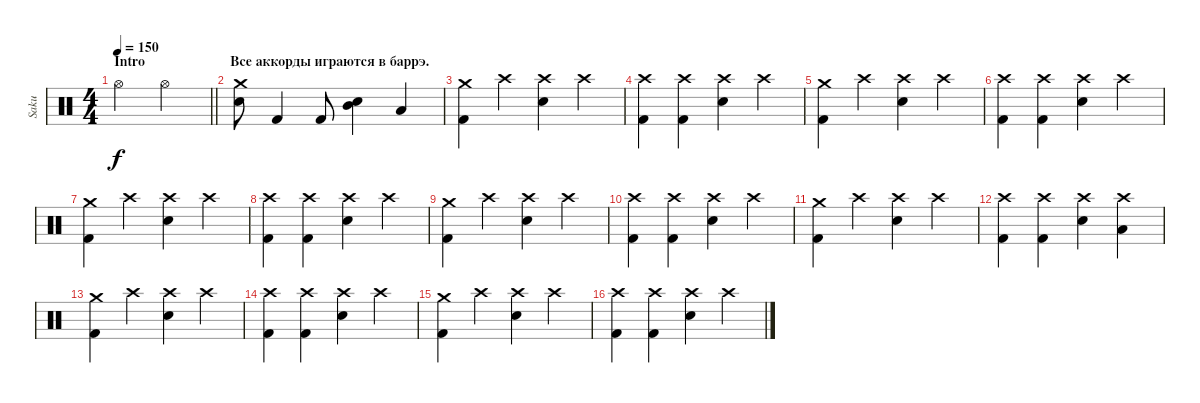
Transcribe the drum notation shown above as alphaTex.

\track ("Saku" "Saku") {instrument percussion}
\staff {score}
\articulation defaults
\ts (4 4)
\section ("" "Intro")
\tempo 150
\clef neutral
\barLineRight lightlight
\ks c "Hi-Hat (open)".2{dy f} "Hi-Hat (open)".2
|
\section ("" "Все аккорды играются в баррэ.")
("Crash medium (hit)" "Electric Snare (hit)").8{bu 60} "Kick (hit) 2".4 "Kick (hit) 2".8 ("Mid Tom (hit)" "Electric Snare (hit)").4 "Low Tom (hit)".4 |
("Crash medium (hit)" "Kick (hit) 2").4 "Crash high (hit)".4 ("Crash high (hit)" "Electric Snare (hit)").4 "Crash high (hit)".4 |
("Crash high (hit)" "Kick (hit) 2").4 ("Crash high (hit)" "Kick (hit) 2").4 ("Crash high (hit)" "Electric Snare (hit)").4 "Crash high (hit)".4 |
("Crash medium (hit)" "Kick (hit) 2").4 "Crash high (hit)".4 ("Crash high (hit)" "Electric Snare (hit)").4 "Crash high (hit)".4 |
("Crash high (hit)" "Kick (hit) 2").4 ("Crash high (hit)" "Kick (hit) 2").4 ("Crash high (hit)" "Electric Snare (hit)").4 "Crash high (hit)".4 |
("Crash medium (hit)" "Kick (hit) 2").4 "Crash high (hit)".4 ("Crash high (hit)" "Electric Snare (hit)").4 "Crash high (hit)".4 |
("Crash high (hit)" "Kick (hit) 2").4 ("Crash high (hit)" "Kick (hit) 2").4 ("Crash high (hit)" "Electric Snare (hit)").4 "Crash high (hit)".4 |
("Crash medium (hit)" "Kick (hit) 2").4 "Crash high (hit)".4 ("Crash high (hit)" "Electric Snare (hit)").4 "Crash high (hit)".4 |
("Crash high (hit)" "Kick (hit) 2").4 ("Crash high (hit)" "Kick (hit) 2").4 ("Crash high (hit)" "Electric Snare (hit)").4 "Crash high (hit)".4 |
("Crash medium (hit)" "Kick (hit) 2").4 "Crash high (hit)".4 ("Crash high (hit)" "Electric Snare (hit)").4 "Crash high (hit)".4 |
("Crash high (hit)" "Kick (hit) 2").4 ("Crash high (hit)" "Kick (hit) 2").4 ("Crash high (hit)" "Electric Snare (hit)").4 ("Crash high (hit)" "Low Tom (hit)").4 |
("Crash medium (hit)" "Kick (hit) 2").4 "Crash high (hit)".4 ("Crash high (hit)" "Electric Snare (hit)").4 "Crash high (hit)".4 |
("Crash high (hit)" "Kick (hit) 2").4 ("Crash high (hit)" "Kick (hit) 2").4 ("Crash high (hit)" "Electric Snare (hit)").4 "Crash high (hit)".4 |
("Crash medium (hit)" "Kick (hit) 2").4 "Crash high (hit)".4 ("Crash high (hit)" "Electric Snare (hit)").4 "Crash high (hit)".4 |
("Crash high (hit)" "Kick (hit) 2").4 ("Crash high (hit)" "Kick (hit) 2").4 ("Crash high (hit)" "Electric Snare (hit)").4 "Crash high (hit)".4
